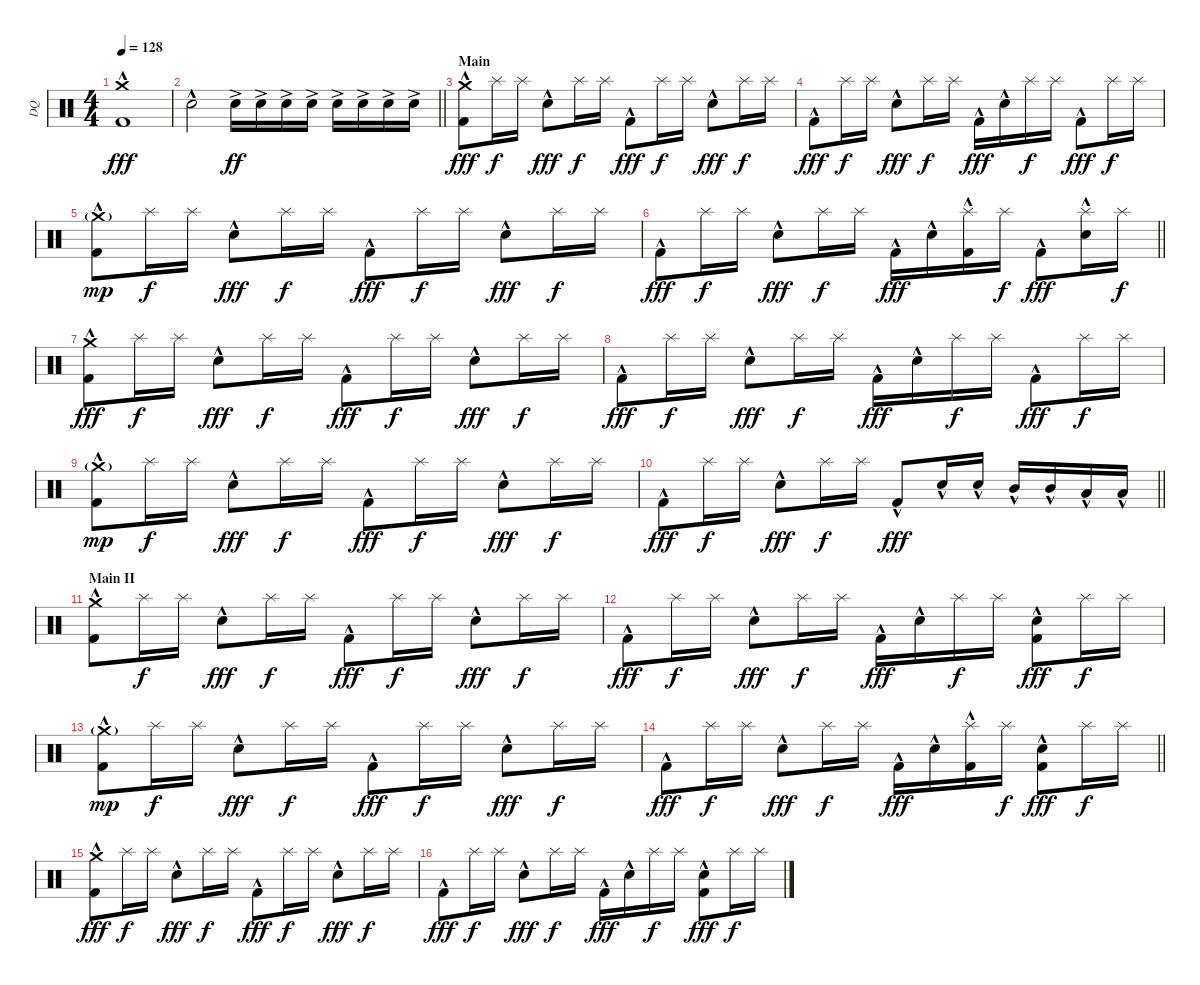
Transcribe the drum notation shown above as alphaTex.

\track ("DQ" "DQ") {instrument percussion}
\staff {score}
\articulation defaults
\ts (4 4)
\section ("" "")
\tempo 128
\clef neutral
\ks c
("Kick (hit) 2"{hac} "Crash medium (hit)"{hac}).1{dy fff} |
\barLineRight lightlight "Snare (hit) 2"{hac}.2 "Snare (hit) 2"{ac}.16{dy ff} "Snare (hit) 2"{ac}.16 "Snare (hit) 2"{ac}.16 "Snare (hit) 2"{ac}.16 "Snare (hit) 2"{ac}.16 "Snare (hit) 2"{ac}.16 "Snare (hit) 2"{ac}.16 "Snare (hit) 2"{ac}.16
|
\section ("" "Main")
("Kick (hit) 2"{hac} "Crash medium (hit)").8{dy fff} "Splash (hit)".16{dy f} "Splash (hit)".16 "Snare (hit) 2"{hac}.8{dy fff} "Splash (hit)".16{dy f} "Splash (hit)".16 "Kick (hit) 2"{hac}.8{dy fff} "Splash (hit)".16{dy f} "Splash (hit)".16 "Snare (hit) 2"{hac}.8{dy fff} "Splash (hit)".16{dy f} "Splash (hit)".16 |
"Kick (hit) 2"{hac}.8{dy fff} "Splash (hit)".16{dy f} "Splash (hit)".16 "Snare (hit) 2"{hac}.8{dy fff} "Splash (hit)".16{dy f} "Splash (hit)".16 "Kick (hit) 2"{hac}.16{dy fff} "Snare (hit) 2"{hac}.16 "Splash (hit)".16{dy f} "Splash (hit)".16 "Kick (hit) 2"{hac}.8{dy fff} "Splash (hit)".16{dy f} "Splash (hit)".16 |
("Kick (hit) 2"{hac} "Crash medium (hit)"{g}).8{dy mp} "Splash (hit)".16{dy f} "Splash (hit)".16 "Snare (hit) 2"{hac}.8{dy fff} "Splash (hit)".16{dy f} "Splash (hit)".16 "Kick (hit) 2"{hac}.8{dy fff} "Splash (hit)".16{dy f} "Splash (hit)".16 "Snare (hit) 2"{hac}.8{dy fff} "Splash (hit)".16{dy f} "Splash (hit)".16 |
\barLineRight lightlight "Kick (hit) 2"{hac}.8{dy fff} "Splash (hit)".16{dy f} "Splash (hit)".16 "Snare (hit) 2"{hac}.8{dy fff} "Splash (hit)".16{dy f} "Splash (hit)".16 "Kick (hit) 2"{hac}.16{dy fff} "Snare (hit) 2"{hac}.16
("Kick (hit) 2"{hac} "Splash (hit)").16 "Splash (hit)".16{dy f} "Kick (hit) 2"{hac}.8{dy fff} ("Snare (hit) 2"{hac} "Splash (hit)").16 "Splash (hit)".16{dy f} |
\section ("" "")
("Kick (hit) 2"{hac} "Crash medium (hit)").8{dy fff} "Splash (hit)".16{dy f} "Splash (hit)".16 "Snare (hit) 2"{hac}.8{dy fff} "Splash (hit)".16{dy f} "Splash (hit)".16 "Kick (hit) 2"{hac}.8{dy fff} "Splash (hit)".16{dy f} "Splash (hit)".16 "Snare (hit) 2"{hac}.8{dy fff} "Splash (hit)".16{dy f} "Splash (hit)".16 |
"Kick (hit) 2"{hac}.8{dy fff} "Splash (hit)".16{dy f} "Splash (hit)".16 "Snare (hit) 2"{hac}.8{dy fff} "Splash (hit)".16{dy f} "Splash (hit)".16 "Kick (hit) 2"{hac}.16{dy fff} "Snare (hit) 2"{hac}.16 "Splash (hit)".16{dy f} "Splash (hit)".16 "Kick (hit) 2"{hac}.8{dy fff} "Splash (hit)".16{dy f} "Splash (hit)".16 |
("Kick (hit) 2"{hac} "Crash medium (hit)"{g}).8{dy mp} "Splash (hit)".16{dy f} "Splash (hit)".16 "Snare (hit) 2"{hac}.8{dy fff} "Splash (hit)".16{dy f} "Splash (hit)".16 "Kick (hit) 2"{hac}.8{dy fff} "Splash (hit)".16{dy f} "Splash (hit)".16 "Snare (hit) 2"{hac}.8{dy fff} "Splash (hit)".16{dy f} "Splash (hit)".16 |
\barLineRight lightlight "Kick (hit) 2"{hac}.8{dy fff} "Splash (hit)".16{dy f} "Splash (hit)".16 "Snare (hit) 2"{hac}.8{dy fff} "Splash (hit)".16{dy f} "Splash (hit)".16 "Kick (hit) 2"{hac}.8{dy fff} "Snare (hit) 2"{hac}.16 "Snare (hit) 2"{hac}.16 "Mid Tom (hit)"{hac}.16 "Mid Tom (hit)"{hac}.16 "Low Tom (hit)"{hac}.16 "Low Tom (hit)"{hac}.16
|
\section ("" "Main II")
("Kick (hit) 2"{hac} "Crash medium (hit)").8 "Splash (hit)".16{dy f} "Splash (hit)".16 "Snare (hit) 2"{hac}.8{dy fff} "Splash (hit)".16{dy f} "Splash (hit)".16 "Kick (hit) 2"{hac}.8{dy fff} "Splash (hit)".16{dy f} "Splash (hit)".16 "Snare (hit) 2"{hac}.8{dy fff} "Splash (hit)".16{dy f} "Splash (hit)".16 |
"Kick (hit) 2"{hac}.8{dy fff} "Splash (hit)".16{dy f} "Splash (hit)".16 "Snare (hit) 2"{hac}.8{dy fff} "Splash (hit)".16{dy f} "Splash (hit)".16 "Kick (hit) 2"{hac}.16{dy fff} "Snare (hit) 2"{hac}.16 "Splash (hit)".16{dy f} "Splash (hit)".16 ("Kick (hit) 2"{hac} "Snare (hit) 2"{hac}).8{dy fff} "Splash (hit)".16{dy f} "Splash (hit)".16 |
("Kick (hit) 2"{hac} "Crash medium (hit)"{g}).8{dy mp} "Splash (hit)".16{dy f} "Splash (hit)".16 "Snare (hit) 2"{hac}.8{dy fff} "Splash (hit)".16{dy f} "Splash (hit)".16 "Kick (hit) 2"{hac}.8{dy fff} "Splash (hit)".16{dy f} "Splash (hit)".16 "Snare (hit) 2"{hac}.8{dy fff} "Splash (hit)".16{dy f} "Splash (hit)".16 |
\barLineRight lightlight "Kick (hit) 2"{hac}.8{dy fff} "Splash (hit)".16{dy f} "Splash (hit)".16 "Snare (hit) 2"{hac}.8{dy fff} "Splash (hit)".16{dy f} "Splash (hit)".16 "Kick (hit) 2"{hac}.16{dy fff} "Snare (hit) 2"{hac}.16
("Kick (hit) 2"{hac} "Splash (hit)").16 "Splash (hit)".16{dy f} ("Kick (hit) 2"{hac} "Snare (hit) 2"{hac}).8{dy fff} "Splash (hit)".16{dy f} "Splash (hit)".16 |
\section ("" "")
("Kick (hit) 2"{hac} "Crash medium (hit)").8{dy fff} "Splash (hit)".16{dy f} "Splash (hit)".16 "Snare (hit) 2"{hac}.8{dy fff} "Splash (hit)".16{dy f} "Splash (hit)".16 "Kick (hit) 2"{hac}.8{dy fff} "Splash (hit)".16{dy f} "Splash (hit)".16 "Snare (hit) 2"{hac}.8{dy fff} "Splash (hit)".16{dy f} "Splash (hit)".16 |
"Kick (hit) 2"{hac}.8{dy fff} "Splash (hit)".16{dy f} "Splash (hit)".16 "Snare (hit) 2"{hac}.8{dy fff} "Splash (hit)".16{dy f} "Splash (hit)".16 "Kick (hit) 2"{hac}.16{dy fff} "Snare (hit) 2"{hac}.16 "Splash (hit)".16{dy f} "Splash (hit)".16 ("Kick (hit) 2"{hac} "Snare (hit) 2"{hac}).8{dy fff} "Splash (hit)".16{dy f} "Splash (hit)".16
